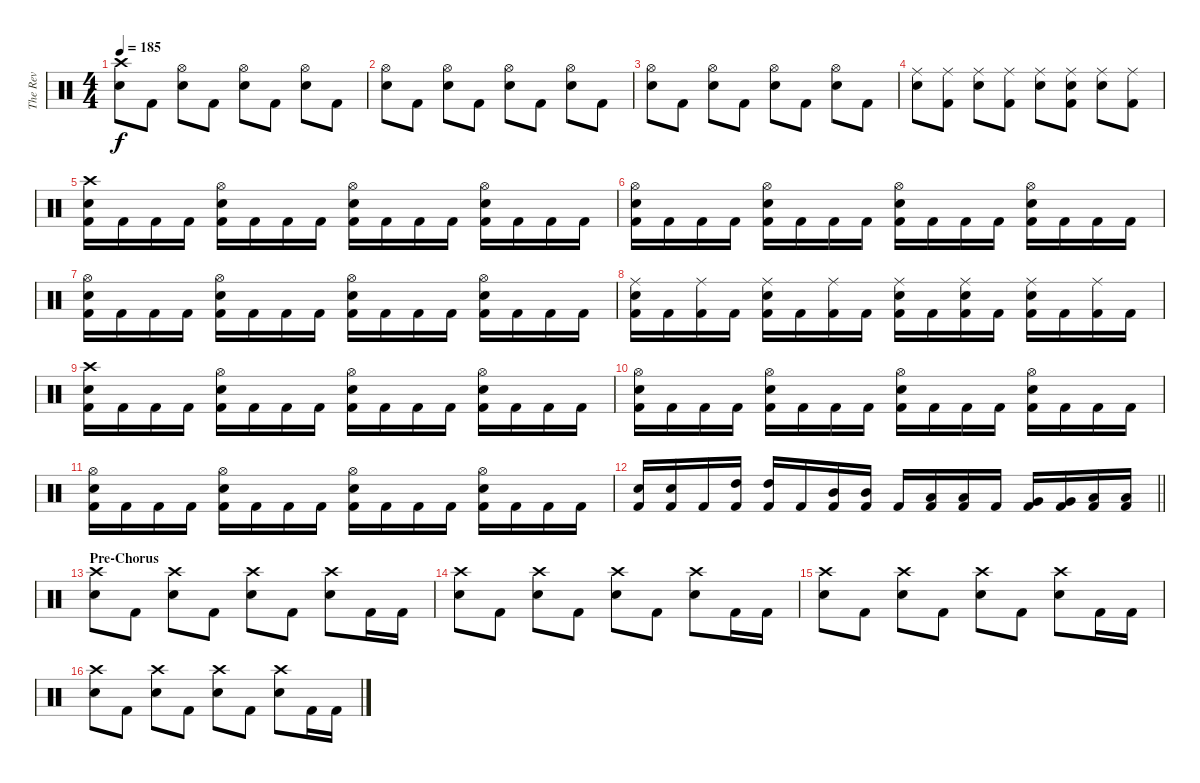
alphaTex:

\track ("The Rev" "The Rev") {instrument percussion}
\staff {score}
\articulation defaults
\ts (4 4)
\tempo 185
\clef neutral
\ks c
("Crash high (hit)" "Electric Snare (hit)").8{dy f} "Kick (hit) 2".8 ("Hi-Hat (open)" "Electric Snare (hit)").8 "Kick (hit) 2".8 ("Hi-Hat (open)" "Electric Snare (hit)").8 "Kick (hit) 2".8 ("Hi-Hat (open)" "Electric Snare (hit)").8 "Kick (hit) 2".8 |
("Hi-Hat (open)" "Electric Snare (hit)").8 "Kick (hit) 2".8 ("Hi-Hat (open)" "Electric Snare (hit)").8 "Kick (hit) 2".8 ("Hi-Hat (open)" "Electric Snare (hit)").8 "Kick (hit) 2".8 ("Hi-Hat (open)" "Electric Snare (hit)").8 "Kick (hit) 2".8 |
("Hi-Hat (open)" "Electric Snare (hit)").8 "Kick (hit) 2".8 ("Hi-Hat (open)" "Electric Snare (hit)").8 "Kick (hit) 2".8 ("Hi-Hat (open)" "Electric Snare (hit)").8 "Kick (hit) 2".8 ("Hi-Hat (open)" "Electric Snare (hit)").8 "Kick (hit) 2".8 |
("Ride (middle)" "Electric Snare (hit)").8 ("Ride (middle)" "Kick (hit) 2").8 ("Ride (middle)" "Electric Snare (hit)").8 ("Ride (middle)" "Kick (hit) 2").8 ("Ride (middle)" "Electric Snare (hit)").8 ("Ride (middle)" "Electric Snare (hit)" "Kick (hit) 2").8 ("Ride (middle)" "Electric Snare (hit)").8 ("Ride (middle)" "Kick (hit) 2").8 |
("Crash high (hit)" "Electric Snare (hit)" "Kick (hit) 2").16 "Kick (hit) 2".16 "Kick (hit) 2".16 "Kick (hit) 2".16 ("Hi-Hat (open)" "Electric Snare (hit)" "Kick (hit) 2").16 "Kick (hit) 2".16 "Kick (hit) 2".16 "Kick (hit) 2".16 ("Hi-Hat (open)" "Electric Snare (hit)" "Kick (hit) 2").16 "Kick (hit) 2".16 "Kick (hit) 2".16 "Kick (hit) 2".16 ("Hi-Hat (open)" "Electric Snare (hit)" "Kick (hit) 2").16 "Kick (hit) 2".16 "Kick (hit) 2".16 "Kick (hit) 2".16 |
("Hi-Hat (open)" "Electric Snare (hit)" "Kick (hit) 2").16 "Kick (hit) 2".16 "Kick (hit) 2".16 "Kick (hit) 2".16 ("Hi-Hat (open)" "Electric Snare (hit)" "Kick (hit) 2").16 "Kick (hit) 2".16 "Kick (hit) 2".16 "Kick (hit) 2".16 ("Hi-Hat (open)" "Electric Snare (hit)" "Kick (hit) 2").16 "Kick (hit) 2".16 "Kick (hit) 2".16 "Kick (hit) 2".16 ("Hi-Hat (open)" "Electric Snare (hit)" "Kick (hit) 2").16 "Kick (hit) 2".16 "Kick (hit) 2".16 "Kick (hit) 2".16 |
("Hi-Hat (open)" "Electric Snare (hit)" "Kick (hit) 2").16 "Kick (hit) 2".16 "Kick (hit) 2".16 "Kick (hit) 2".16 ("Hi-Hat (open)" "Electric Snare (hit)" "Kick (hit) 2").16 "Kick (hit) 2".16 "Kick (hit) 2".16 "Kick (hit) 2".16 ("Hi-Hat (open)" "Electric Snare (hit)" "Kick (hit) 2").16 "Kick (hit) 2".16 "Kick (hit) 2".16 "Kick (hit) 2".16 ("Hi-Hat (open)" "Electric Snare (hit)" "Kick (hit) 2").16 "Kick (hit) 2".16 "Kick (hit) 2".16 "Kick (hit) 2".16 |
("Ride (middle)" "Electric Snare (hit)" "Kick (hit) 2").16 "Kick (hit) 2".16 ("Ride (middle)" "Kick (hit) 2").16 "Kick (hit) 2".16 ("Ride (middle)" "Electric Snare (hit)" "Kick (hit) 2").16 "Kick (hit) 2".16 ("Ride (middle)" "Kick (hit) 2").16 "Kick (hit) 2".16 ("Ride (middle)" "Electric Snare (hit)" "Kick (hit) 2").16 "Kick (hit) 2".16 ("Ride (middle)" "Electric Snare (hit)" "Kick (hit) 2").16 "Kick (hit) 2".16 ("Ride (middle)" "Electric Snare (hit)" "Kick (hit) 2").16 "Kick (hit) 2".16 ("Ride (middle)" "Kick (hit) 2").16 "Kick (hit) 2".16 |
("Crash high (hit)" "Electric Snare (hit)" "Kick (hit) 2").16 "Kick (hit) 2".16 "Kick (hit) 2".16 "Kick (hit) 2".16 ("Hi-Hat (open)" "Electric Snare (hit)" "Kick (hit) 2").16 "Kick (hit) 2".16 "Kick (hit) 2".16 "Kick (hit) 2".16 ("Hi-Hat (open)" "Electric Snare (hit)" "Kick (hit) 2").16 "Kick (hit) 2".16 "Kick (hit) 2".16 "Kick (hit) 2".16 ("Hi-Hat (open)" "Electric Snare (hit)" "Kick (hit) 2").16 "Kick (hit) 2".16 "Kick (hit) 2".16 "Kick (hit) 2".16 |
("Hi-Hat (open)" "Electric Snare (hit)" "Kick (hit) 2").16 "Kick (hit) 2".16 "Kick (hit) 2".16 "Kick (hit) 2".16 ("Hi-Hat (open)" "Electric Snare (hit)" "Kick (hit) 2").16 "Kick (hit) 2".16 "Kick (hit) 2".16 "Kick (hit) 2".16 ("Hi-Hat (open)" "Electric Snare (hit)" "Kick (hit) 2").16 "Kick (hit) 2".16 "Kick (hit) 2".16 "Kick (hit) 2".16 ("Hi-Hat (open)" "Electric Snare (hit)" "Kick (hit) 2").16 "Kick (hit) 2".16 "Kick (hit) 2".16 "Kick (hit) 2".16 |
("Hi-Hat (open)" "Electric Snare (hit)" "Kick (hit) 2").16 "Kick (hit) 2".16 "Kick (hit) 2".16 "Kick (hit) 2".16 ("Hi-Hat (open)" "Electric Snare (hit)" "Kick (hit) 2").16 "Kick (hit) 2".16 "Kick (hit) 2".16 "Kick (hit) 2".16 ("Hi-Hat (open)" "Electric Snare (hit)" "Kick (hit) 2").16 "Kick (hit) 2".16 "Kick (hit) 2".16 "Kick (hit) 2".16 ("Hi-Hat (open)" "Electric Snare (hit)" "Kick (hit) 2").16 "Kick (hit) 2".16 "Kick (hit) 2".16 "Kick (hit) 2".16 |
\barLineRight lightlight
("Electric Snare (hit)" "Kick (hit) 2").16 ("Electric Snare (hit)" "Kick (hit) 2").16 "Kick (hit) 2".16 ("High Tom (hit)" "Kick (hit) 2").16 ("High Tom (hit)" "Kick (hit) 2").16 "Kick (hit) 2".16 ("Mid Tom (hit)" "Kick (hit) 2").16 ("Mid Tom (hit)" "Kick (hit) 2").16 "Kick (hit) 2".16 ("Low Tom (hit)" "Kick (hit) 2").16 ("Low Tom (hit)" "Kick (hit) 2").16 "Kick (hit) 2".16 ("Very Low Tom (hit)" "Kick (hit) 2").16 ("Very Low Tom (hit)" "Kick (hit) 2").16 ("Low Tom (hit)" "Kick (hit) 2").16 ("Low Tom (hit)" "Kick (hit) 2").16 |
\section ("" "Pre-Chorus")
("Crash high (hit)" "Electric Snare (hit)").8 "Kick (hit) 2".8 ("Crash high (hit)" "Electric Snare (hit)").8 "Kick (hit) 2".8 ("Crash high (hit)" "Electric Snare (hit)").8 "Kick (hit) 2".8 ("Crash high (hit)" "Electric Snare (hit)").8 "Kick (hit) 2".16 "Kick (hit) 2".16 |
("Crash high (hit)" "Electric Snare (hit)").8 "Kick (hit) 2".8 ("Crash high (hit)" "Electric Snare (hit)").8 "Kick (hit) 2".8 ("Crash high (hit)" "Electric Snare (hit)").8 "Kick (hit) 2".8 ("Crash high (hit)" "Electric Snare (hit)").8 "Kick (hit) 2".16 "Kick (hit) 2".16 |
("Crash high (hit)" "Electric Snare (hit)").8 "Kick (hit) 2".8 ("Crash high (hit)" "Electric Snare (hit)").8 "Kick (hit) 2".8 ("Crash high (hit)" "Electric Snare (hit)").8 "Kick (hit) 2".8 ("Crash high (hit)" "Electric Snare (hit)").8 "Kick (hit) 2".16 "Kick (hit) 2".16 |
("Crash high (hit)" "Electric Snare (hit)").8 "Kick (hit) 2".8 ("Crash high (hit)" "Electric Snare (hit)").8 "Kick (hit) 2".8 ("Crash high (hit)" "Electric Snare (hit)").8 "Kick (hit) 2".8 ("Crash high (hit)" "Electric Snare (hit)").8 "Kick (hit) 2".16 "Kick (hit) 2".16
